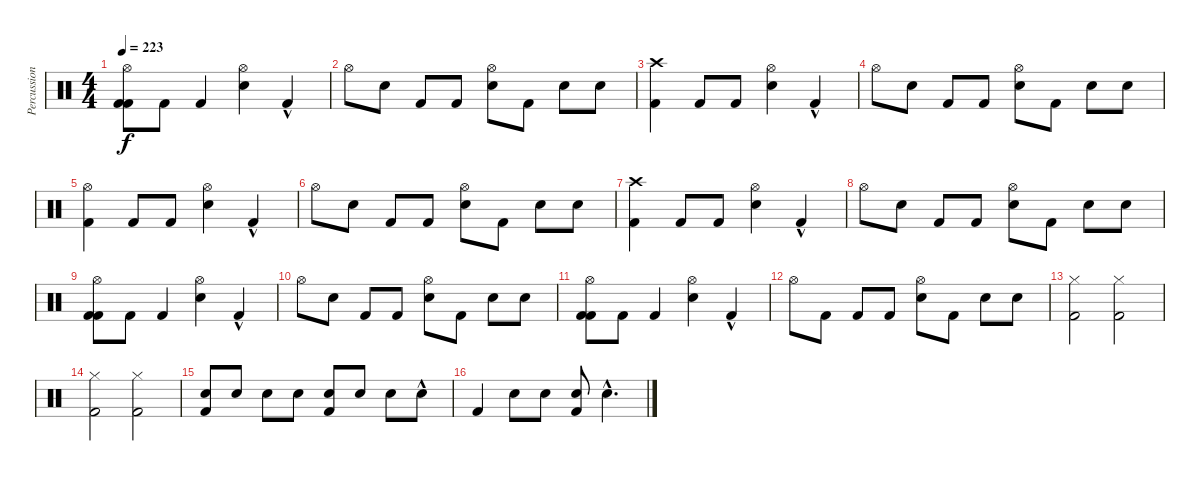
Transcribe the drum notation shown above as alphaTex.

\track ("Percussion" "Percussion") {instrument percussion}
\staff {score}
\articulation defaults
\ts (4 4)
\tempo 223
\clef neutral
\ks c
("Hi-Hat (open)" "Kick (hit) 2" "Kick (hit) 2").8{dy f} "Kick (hit) 2".8 "Kick (hit) 2".4 ("Hi-Hat (open)" "Electric Snare (hit)").4 "Kick (hit) 2"{hac}.4 |
"Hi-Hat (open)".8 "Electric Snare (hit)".8 "Kick (hit) 2".8 "Kick (hit) 2".8 ("Hi-Hat (open)" "Electric Snare (hit)").8 "Kick (hit) 2".8 "Electric Snare (hit)".8 "Electric Snare (hit)".8 |
("Crash high (hit)" "Kick (hit) 2").4 "Kick (hit) 2".8 "Kick (hit) 2".8 ("Hi-Hat (open)" "Electric Snare (hit)").4 "Kick (hit) 2"{hac}.4 |
"Hi-Hat (open)".8 "Electric Snare (hit)".8 "Kick (hit) 2".8 "Kick (hit) 2".8 ("Hi-Hat (open)" "Electric Snare (hit)").8 "Kick (hit) 2".8 "Electric Snare (hit)".8 "Electric Snare (hit)".8 |
("Hi-Hat (open)" "Kick (hit) 2").4 "Kick (hit) 2".8 "Kick (hit) 2".8 ("Hi-Hat (open)" "Electric Snare (hit)").4 "Kick (hit) 2"{hac}.4 |
"Hi-Hat (open)".8 "Electric Snare (hit)".8 "Kick (hit) 2".8 "Kick (hit) 2".8 ("Hi-Hat (open)" "Electric Snare (hit)").8 "Kick (hit) 2".8 "Electric Snare (hit)".8 "Electric Snare (hit)".8 |
("Crash high (hit)" "Kick (hit) 2").4 "Kick (hit) 2".8 "Kick (hit) 2".8 ("Hi-Hat (open)" "Electric Snare (hit)").4 "Kick (hit) 2"{hac}.4 |
"Hi-Hat (open)".8 "Electric Snare (hit)".8 "Kick (hit) 2".8 "Kick (hit) 2".8 ("Hi-Hat (open)" "Electric Snare (hit)").8 "Kick (hit) 2".8 "Electric Snare (hit)".8 "Electric Snare (hit)".8 |
("Hi-Hat (open)" "Kick (hit) 2" "Kick (hit) 2").8 "Kick (hit) 2".8 "Kick (hit) 2".4 ("Hi-Hat (open)" "Electric Snare (hit)").4 "Kick (hit) 2"{hac}.4 |
"Hi-Hat (open)".8 "Electric Snare (hit)".8 "Kick (hit) 2".8 "Kick (hit) 2".8 ("Hi-Hat (open)" "Electric Snare (hit)").8 "Kick (hit) 2".8 "Electric Snare (hit)".8 "Electric Snare (hit)".8 |
("Hi-Hat (open)" "Kick (hit) 2" "Kick (hit) 2").8 "Kick (hit) 2".8 "Kick (hit) 2".4 ("Hi-Hat (open)" "Electric Snare (hit)").4 "Kick (hit) 2"{hac}.4 |
"Hi-Hat (open)".8 "Kick (hit) 2".8 "Kick (hit) 2".8 "Kick (hit) 2".8 ("Hi-Hat (open)" "Electric Snare (hit)").8 "Kick (hit) 2".8 "Electric Snare (hit)".8 "Electric Snare (hit)".8 |
("Hi-Hat (closed)" "Kick (hit) 2").2 ("Hi-Hat (closed)" "Kick (hit) 2").2 |
("Hi-Hat (closed)" "Kick (hit) 2").2 ("Hi-Hat (closed)" "Kick (hit) 2").2 |
("Kick (hit) 2" "Electric Snare (hit)").8 "Electric Snare (hit)".8 "Electric Snare (hit)".8 "Electric Snare (hit)".8 ("Kick (hit) 2" "Electric Snare (hit)").8 "Electric Snare (hit)".8 "Electric Snare (hit)".8 "Electric Snare (hit)"{hac}.8 |
"Kick (hit) 2".4 "Electric Snare (hit)".8 "Electric Snare (hit)".8 ("Kick (hit) 2" "Electric Snare (hit)").8 "Electric Snare (hit)"{hac}.4{d}
